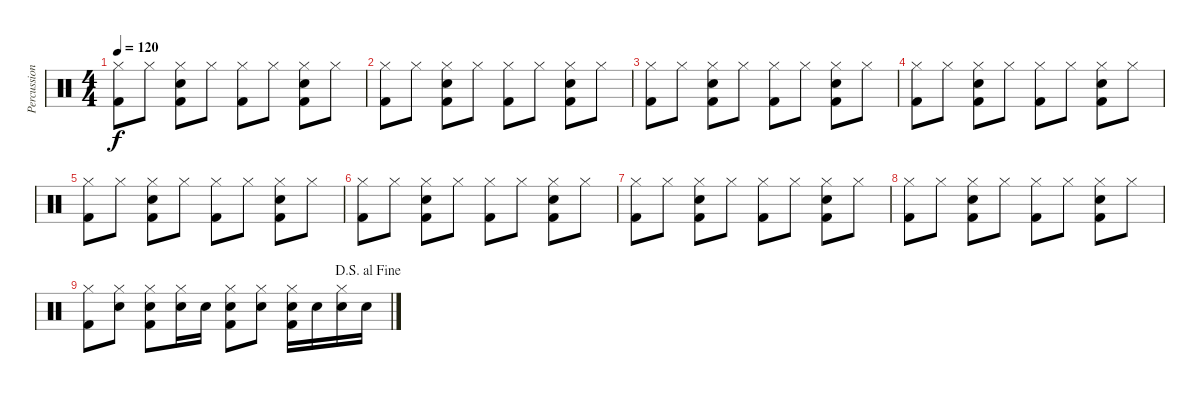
\track ("Percussion" "Percussion") {instrument percussion}
\staff {score}
\articulation defaults
\ts (4 4)
\tempo 120
\clef neutral
\ks c
("Hi-Hat (closed)" "Kick (hit) 2").8{dy f} "Hi-Hat (closed)".8 ("Hi-Hat (closed)" "Kick (hit) 2" "Snare (hit) 2").8 "Hi-Hat (closed)".8 ("Hi-Hat (closed)" "Kick (hit) 2").8 "Hi-Hat (closed)".8 ("Hi-Hat (closed)" "Kick (hit) 2" "Snare (hit) 2").8 "Hi-Hat (closed)".8 |
("Hi-Hat (closed)" "Kick (hit) 2").8 "Hi-Hat (closed)".8 ("Hi-Hat (closed)" "Kick (hit) 2" "Snare (hit) 2").8 "Hi-Hat (closed)".8 ("Hi-Hat (closed)" "Kick (hit) 2").8 "Hi-Hat (closed)".8 ("Hi-Hat (closed)" "Kick (hit) 2" "Snare (hit) 2").8 "Hi-Hat (closed)".8 |
("Hi-Hat (closed)" "Kick (hit) 2").8 "Hi-Hat (closed)".8 ("Hi-Hat (closed)" "Kick (hit) 2" "Snare (hit) 2").8 "Hi-Hat (closed)".8 ("Hi-Hat (closed)" "Kick (hit) 2").8 "Hi-Hat (closed)".8 ("Hi-Hat (closed)" "Kick (hit) 2" "Snare (hit) 2").8 "Hi-Hat (closed)".8 |
("Hi-Hat (closed)" "Kick (hit) 2").8 "Hi-Hat (closed)".8 ("Hi-Hat (closed)" "Kick (hit) 2" "Snare (hit) 2").8 "Hi-Hat (closed)".8 ("Hi-Hat (closed)" "Kick (hit) 2").8 "Hi-Hat (closed)".8 ("Hi-Hat (closed)" "Kick (hit) 2" "Snare (hit) 2").8 "Hi-Hat (closed)".8 |
("Hi-Hat (closed)" "Kick (hit) 2").8 "Hi-Hat (closed)".8 ("Hi-Hat (closed)" "Kick (hit) 2" "Snare (hit) 2").8 "Hi-Hat (closed)".8 ("Hi-Hat (closed)" "Kick (hit) 2").8 "Hi-Hat (closed)".8 ("Hi-Hat (closed)" "Kick (hit) 2" "Snare (hit) 2").8 "Hi-Hat (closed)".8 |
("Hi-Hat (closed)" "Kick (hit) 2").8 "Hi-Hat (closed)".8 ("Hi-Hat (closed)" "Kick (hit) 2" "Snare (hit) 2").8 "Hi-Hat (closed)".8 ("Hi-Hat (closed)" "Kick (hit) 2").8 "Hi-Hat (closed)".8 ("Hi-Hat (closed)" "Kick (hit) 2" "Snare (hit) 2").8 "Hi-Hat (closed)".8 |
("Hi-Hat (closed)" "Kick (hit) 2").8 "Hi-Hat (closed)".8 ("Hi-Hat (closed)" "Kick (hit) 2" "Snare (hit) 2").8 "Hi-Hat (closed)".8 ("Hi-Hat (closed)" "Kick (hit) 2").8 "Hi-Hat (closed)".8 ("Hi-Hat (closed)" "Kick (hit) 2" "Snare (hit) 2").8 "Hi-Hat (closed)".8 |
("Hi-Hat (closed)" "Kick (hit) 2").8 "Hi-Hat (closed)".8 ("Hi-Hat (closed)" "Kick (hit) 2" "Snare (hit) 2").8 "Hi-Hat (closed)".8 ("Hi-Hat (closed)" "Kick (hit) 2").8 "Hi-Hat (closed)".8 ("Hi-Hat (closed)" "Kick (hit) 2" "Snare (hit) 2").8 "Hi-Hat (closed)".8 |
\jump dalsegnoalfine
("Hi-Hat (closed)" "Kick (hit) 2").8 ("Hi-Hat (closed)" "Snare (hit) 2").8 ("Hi-Hat (closed)" "Kick (hit) 2" "Snare (hit) 2").8 ("Hi-Hat (closed)" "Snare (hit) 2").16 "Snare (hit) 2".16 ("Hi-Hat (closed)" "Kick (hit) 2" "Snare (hit) 2").8 ("Hi-Hat (closed)" "Snare (hit) 2").8 ("Hi-Hat (closed)" "Kick (hit) 2" "Snare (hit) 2").16 "Snare (hit) 2".16 ("Hi-Hat (closed)" "Snare (hit) 2").16 "Snare (hit) 2".16
